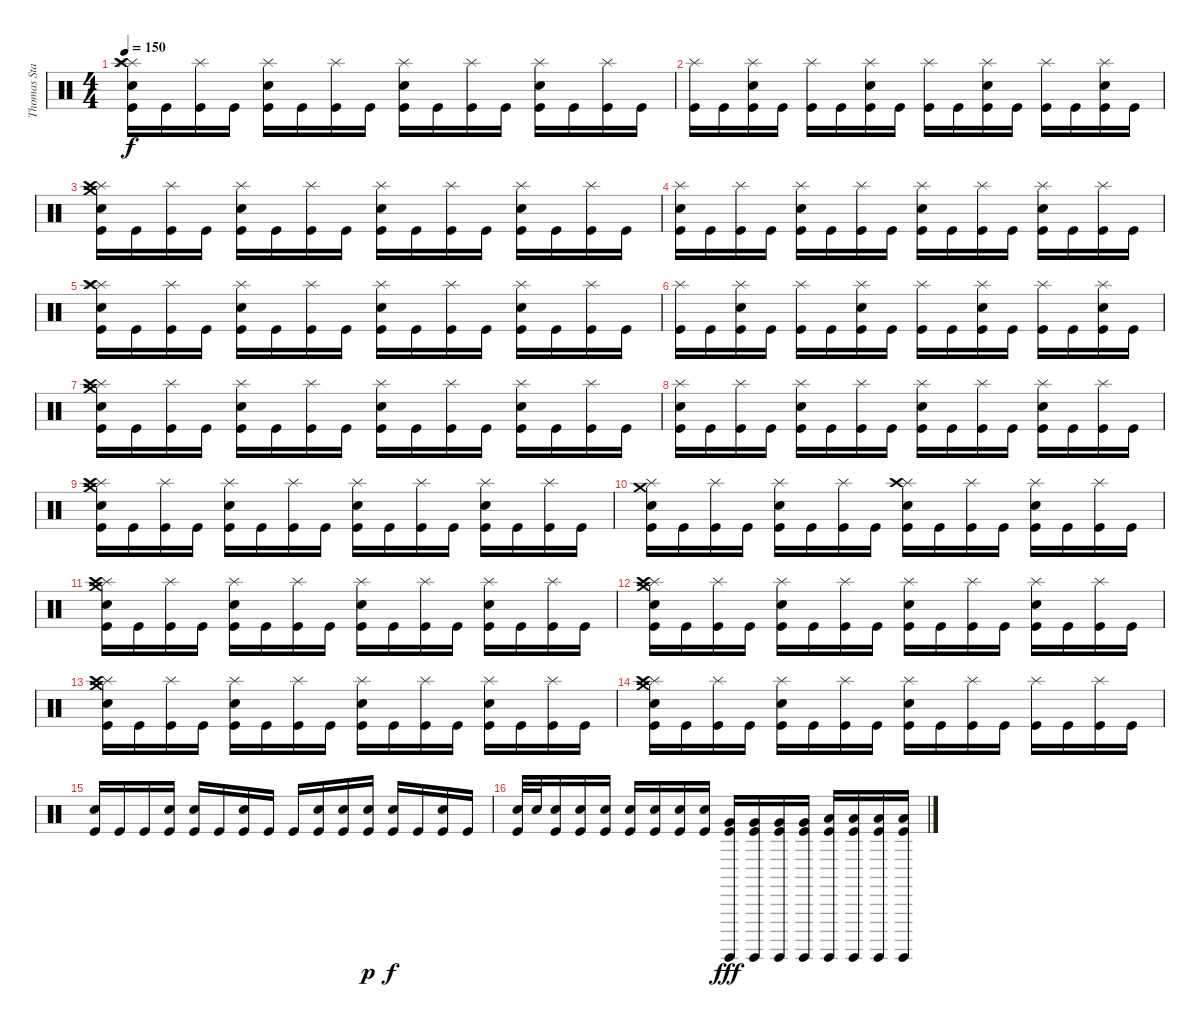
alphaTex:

\track ("Thomas Stauch" "Thomas Sta") {instrument percussion}
\staff {score}
\articulation defaults
\ts (4 4)
\tempo 150
\clef neutral
\ks c
("Splash (hit)" "Splash (hit)" "Crash high (hit)" "Electric Snare (hit)" "Kick (hit)").16{dy f} "Kick (hit)".16 ("Splash (hit)" "Kick (hit)").16 "Kick (hit)".16 ("Splash (hit)" "Electric Snare (hit)" "Kick (hit)").16 "Kick (hit)".16 ("Splash (hit)" "Kick (hit)").16 "Kick (hit)".16 ("Splash (hit)" "Electric Snare (hit)" "Kick (hit)").16 "Kick (hit)".16 ("Splash (hit)" "Kick (hit)").16 "Kick (hit)".16 ("Splash (hit)" "Electric Snare (hit)" "Kick (hit)").16 "Kick (hit)".16 ("Splash (hit)" "Kick (hit)").16 "Kick (hit)".16 |
("Splash (hit)" "Kick (hit)").16 "Kick (hit)".16 ("Splash (hit)" "Electric Snare (hit)" "Kick (hit)").16 "Kick (hit)".16 ("Splash (hit)" "Kick (hit)").16 "Kick (hit)".16 ("Splash (hit)" "Electric Snare (hit)" "Kick (hit)").16 "Kick (hit)".16 ("Splash (hit)" "Kick (hit)").16 "Kick (hit)".16 ("Splash (hit)" "Electric Snare (hit)" "Kick (hit)").16 "Kick (hit)".16 ("Splash (hit)" "Kick (hit)").16 "Kick (hit)".16 ("Splash (hit)" "Electric Snare (hit)" "Kick (hit)").16 "Kick (hit)".16 |
("Crash medium (hit)" "Splash (hit)" "Crash high (hit)" "Electric Snare (hit)" "Kick (hit)").16 "Kick (hit)".16 ("Splash (hit)" "Kick (hit)").16 "Kick (hit)".16 ("Splash (hit)" "Electric Snare (hit)" "Kick (hit)").16 "Kick (hit)".16 ("Splash (hit)" "Kick (hit)").16 "Kick (hit)".16 ("Splash (hit)" "Electric Snare (hit)" "Kick (hit)").16 "Kick (hit)".16 ("Splash (hit)" "Kick (hit)").16 "Kick (hit)".16 ("Splash (hit)" "Electric Snare (hit)" "Kick (hit)").16 "Kick (hit)".16 ("Splash (hit)" "Kick (hit)").16 "Kick (hit)".16 |
("Splash (hit)" "Electric Snare (hit)" "Kick (hit)").16 "Kick (hit)".16 ("Splash (hit)" "Kick (hit)").16 "Kick (hit)".16 ("Splash (hit)" "Electric Snare (hit)" "Kick (hit)").16 "Kick (hit)".16 ("Splash (hit)" "Kick (hit)").16 "Kick (hit)".16 ("Splash (hit)" "Electric Snare (hit)" "Kick (hit)").16 "Kick (hit)".16 ("Splash (hit)" "Kick (hit)").16 "Kick (hit)".16 ("Splash (hit)" "Electric Snare (hit)" "Kick (hit)").16 "Kick (hit)".16 ("Splash (hit)" "Kick (hit)").16 "Kick (hit)".16 |
("Splash (hit)" "Splash (hit)" "Crash high (hit)" "Electric Snare (hit)" "Kick (hit)").16 "Kick (hit)".16 ("Splash (hit)" "Kick (hit)").16 "Kick (hit)".16 ("Splash (hit)" "Electric Snare (hit)" "Kick (hit)").16 "Kick (hit)".16 ("Splash (hit)" "Kick (hit)").16 "Kick (hit)".16 ("Splash (hit)" "Electric Snare (hit)" "Kick (hit)").16 "Kick (hit)".16 ("Splash (hit)" "Kick (hit)").16 "Kick (hit)".16 ("Splash (hit)" "Electric Snare (hit)" "Kick (hit)").16 "Kick (hit)".16 ("Splash (hit)" "Kick (hit)").16 "Kick (hit)".16 |
("Splash (hit)" "Kick (hit)").16 "Kick (hit)".16 ("Splash (hit)" "Electric Snare (hit)" "Kick (hit)").16 "Kick (hit)".16 ("Splash (hit)" "Kick (hit)").16 "Kick (hit)".16 ("Splash (hit)" "Electric Snare (hit)" "Kick (hit)").16 "Kick (hit)".16 ("Splash (hit)" "Kick (hit)").16 "Kick (hit)".16 ("Splash (hit)" "Electric Snare (hit)" "Kick (hit)").16 "Kick (hit)".16 ("Splash (hit)" "Kick (hit)").16 "Kick (hit)".16 ("Splash (hit)" "Electric Snare (hit)" "Kick (hit)").16 "Kick (hit)".16 |
("Crash medium (hit)" "Splash (hit)" "Crash high (hit)" "Electric Snare (hit)" "Kick (hit)").16 "Kick (hit)".16 ("Splash (hit)" "Kick (hit)").16 "Kick (hit)".16 ("Splash (hit)" "Electric Snare (hit)" "Kick (hit)").16 "Kick (hit)".16 ("Splash (hit)" "Kick (hit)").16 "Kick (hit)".16 ("Splash (hit)" "Electric Snare (hit)" "Kick (hit)").16 "Kick (hit)".16 ("Splash (hit)" "Kick (hit)").16 "Kick (hit)".16 ("Splash (hit)" "Electric Snare (hit)" "Kick (hit)").16 "Kick (hit)".16 ("Splash (hit)" "Kick (hit)").16 "Kick (hit)".16 |
("Splash (hit)" "Electric Snare (hit)" "Kick (hit)").16 "Kick (hit)".16 ("Splash (hit)" "Kick (hit)").16 "Kick (hit)".16 ("Splash (hit)" "Electric Snare (hit)" "Kick (hit)").16 "Kick (hit)".16 ("Splash (hit)" "Kick (hit)").16 "Kick (hit)".16 ("Splash (hit)" "Electric Snare (hit)" "Kick (hit)").16 "Kick (hit)".16 ("Splash (hit)" "Kick (hit)").16 "Kick (hit)".16 ("Splash (hit)" "Electric Snare (hit)" "Kick (hit)").16 "Kick (hit)".16 ("Splash (hit)" "Kick (hit)").16 "Kick (hit)".16 |
("Crash medium (hit)" "Splash (hit)" "Crash high (hit)" "Electric Snare (hit)" "Kick (hit)").16 "Kick (hit)".16 ("Splash (hit)" "Kick (hit)").16 "Kick (hit)".16 ("Splash (hit)" "Electric Snare (hit)" "Kick (hit)").16 "Kick (hit)".16 ("Splash (hit)" "Kick (hit)").16 "Kick (hit)".16 ("Splash (hit)" "Electric Snare (hit)" "Kick (hit)").16 "Kick (hit)".16 ("Splash (hit)" "Kick (hit)").16 "Kick (hit)".16 ("Splash (hit)" "Electric Snare (hit)" "Kick (hit)").16 "Kick (hit)".16 ("Splash (hit)" "Kick (hit)").16 "Kick (hit)".16 |
("Crash medium (hit)" "Splash (hit)" "Electric Snare (hit)" "Kick (hit)").16 "Kick (hit)".16 ("Splash (hit)" "Kick (hit)").16 "Kick (hit)".16 ("Splash (hit)" "Electric Snare (hit)" "Kick (hit)").16 "Kick (hit)".16 ("Splash (hit)" "Kick (hit)").16 "Kick (hit)".16 ("Splash (hit)" "Crash high (hit)" "Electric Snare (hit)" "Kick (hit)").16 "Kick (hit)".16 ("Splash (hit)" "Kick (hit)").16 "Kick (hit)".16 ("Splash (hit)" "Electric Snare (hit)" "Kick (hit)").16 "Kick (hit)".16 ("Splash (hit)" "Kick (hit)").16 "Kick (hit)".16 |
("Crash medium (hit)" "Splash (hit)" "Crash high (hit)" "Electric Snare (hit)" "Kick (hit)").16 "Kick (hit)".16 ("Splash (hit)" "Kick (hit)").16 "Kick (hit)".16 ("Splash (hit)" "Electric Snare (hit)" "Kick (hit)").16 "Kick (hit)".16 ("Splash (hit)" "Kick (hit)").16 "Kick (hit)".16 ("Splash (hit)" "Electric Snare (hit)" "Kick (hit)").16 "Kick (hit)".16 ("Splash (hit)" "Kick (hit)").16 "Kick (hit)".16 ("Splash (hit)" "Electric Snare (hit)" "Kick (hit)").16 "Kick (hit)".16 ("Splash (hit)" "Kick (hit)").16 "Kick (hit)".16 |
("Crash medium (hit)" "Splash (hit)" "Crash high (hit)" "Electric Snare (hit)" "Kick (hit)").16 "Kick (hit)".16 ("Splash (hit)" "Kick (hit)").16 "Kick (hit)".16 ("Splash (hit)" "Electric Snare (hit)" "Kick (hit)").16 "Kick (hit)".16 ("Splash (hit)" "Kick (hit)").16 "Kick (hit)".16 ("Splash (hit)" "Electric Snare (hit)" "Kick (hit)").16 "Kick (hit)".16 ("Splash (hit)" "Kick (hit)").16 "Kick (hit)".16 ("Splash (hit)" "Electric Snare (hit)" "Kick (hit)").16 "Kick (hit)".16 ("Splash (hit)" "Kick (hit)").16 "Kick (hit)".16 |
("Crash medium (hit)" "Splash (hit)" "Crash high (hit)" "Electric Snare (hit)" "Kick (hit)").16 "Kick (hit)".16 ("Splash (hit)" "Kick (hit)").16 "Kick (hit)".16 ("Splash (hit)" "Electric Snare (hit)" "Kick (hit)").16 "Kick (hit)".16 ("Splash (hit)" "Kick (hit)").16 "Kick (hit)".16 ("Splash (hit)" "Electric Snare (hit)" "Kick (hit)").16 "Kick (hit)".16 ("Splash (hit)" "Kick (hit)").16 "Kick (hit)".16 ("Splash (hit)" "Electric Snare (hit)" "Kick (hit)").16 "Kick (hit)".16 ("Splash (hit)" "Kick (hit)").16 "Kick (hit)".16 |
("Crash medium (hit)" "Splash (hit)" "Crash high (hit)" "Electric Snare (hit)" "Kick (hit)").16 "Kick (hit)".16 ("Splash (hit)" "Kick (hit)").16 "Kick (hit)".16 ("Splash (hit)" "Electric Snare (hit)" "Kick (hit)").16 "Kick (hit)".16 ("Splash (hit)" "Kick (hit)").16 "Kick (hit)".16 ("Splash (hit)" "Electric Snare (hit)" "Kick (hit)").16 "Kick (hit)".16 ("Splash (hit)" "Kick (hit)").16 "Kick (hit)".16 ("Splash (hit)" "Kick (hit)").16 "Kick (hit)".16 ("Splash (hit)" "Kick (hit)").16 "Kick (hit)".16 |
("Electric Snare (hit)" "Kick (hit)").16 "Kick (hit)".16 "Kick (hit)".16 ("Electric Snare (hit)" "Kick (hit)").16 ("Electric Snare (hit)" "Kick (hit)").16 "Kick (hit)".16 ("Electric Snare (hit)" "Kick (hit)").16 "Kick (hit)".16 "Kick (hit)".16 ("Electric Snare (hit)" "Kick (hit)").16 ("Electric Snare (hit)" "Kick (hit)").16 ("Electric Snare (hit)" "Kick (hit)").16{dy p} ("Electric Snare (hit)" "Kick (hit)").16{dy f} "Kick (hit)".16 ("Electric Snare (hit)" "Kick (hit)").16 "Kick (hit)".16 |
("Electric Snare (hit)" "Kick (hit)").32 "Electric Snare (hit)".32 ("Electric Snare (hit)" "Kick (hit)").16 ("Electric Snare (hit)" "Kick (hit)").16 ("Electric Snare (hit)" "Kick (hit)").16 ("Electric Snare (hit)" "Kick (hit)").16 ("Electric Snare (hit)" "Kick (hit)").16 ("Electric Snare (hit)" "Kick (hit)").16 ("Electric Snare (hit)" "Kick (hit)").16 ("Surdo (hit)" "Very Low Tom (hit)" "Kick (hit)").16{dy fff} ("Surdo (hit)" "Very Low Tom (hit)" "Kick (hit)").16 ("Surdo (hit)" "Very Low Tom (hit)" "Kick (hit)").16 ("Surdo (hit)" "Very Low Tom (hit)" "Kick (hit)").16 ("Surdo (hit)" "Low Floor Tom (hit)" "Kick (hit)").16 ("Surdo (hit)" "Low Floor Tom (hit)" "Kick (hit)").16 ("Surdo (hit)" "Low Floor Tom (hit)" "Kick (hit)").16 ("Surdo (hit)" "Low Floor Tom (hit)" "Kick (hit)").16
